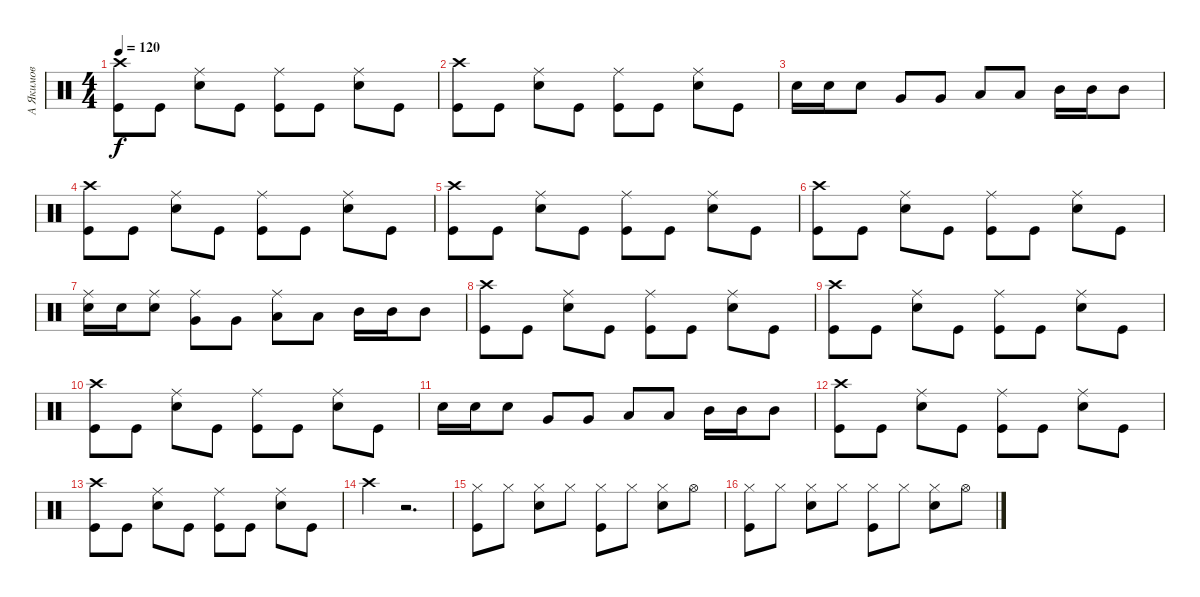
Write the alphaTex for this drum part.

\track ("А Якимов" "А Якимов") {instrument percussion}
\staff {score}
\articulation defaults
\ts (4 4)
\tempo 120
\clef neutral
\ks c
("Crash high (hit)" "Kick (hit)").8{dy f} "Kick (hit)".8 ("Ride (middle)" "Snare (hit) 2").8 "Kick (hit)".8 ("Ride (middle)" "Kick (hit)").8 "Kick (hit)".8 ("Ride (middle)" "Snare (hit) 2").8 "Kick (hit)".8 |
("Crash high (hit)" "Kick (hit)").8 "Kick (hit)".8 ("Ride (middle)" "Snare (hit) 2").8 "Kick (hit)".8 ("Ride (middle)" "Kick (hit)").8 "Kick (hit)".8 ("Ride (middle)" "Snare (hit) 2").8 "Kick (hit)".8 |
"Snare (hit) 2".16 "Snare (hit) 2".16 "Snare (hit) 2".8 "Very Low Tom (hit)".8 "Very Low Tom (hit)".8 "Low Tom (hit)".8 "Low Tom (hit)".8 "Mid Tom (hit)".16 "Mid Tom (hit)".16 "Mid Tom (hit)".8 |
("Crash high (hit)" "Kick (hit)").8 "Kick (hit)".8 ("Ride (middle)" "Snare (hit) 2").8 "Kick (hit)".8 ("Ride (middle)" "Kick (hit)").8 "Kick (hit)".8 ("Ride (middle)" "Snare (hit) 2").8 "Kick (hit)".8 |
("Crash high (hit)" "Kick (hit)").8 "Kick (hit)".8 ("Ride (middle)" "Snare (hit) 2").8 "Kick (hit)".8 ("Ride (middle)" "Kick (hit)").8 "Kick (hit)".8 ("Ride (middle)" "Snare (hit) 2").8 "Kick (hit)".8 |
("Crash high (hit)" "Kick (hit)").8 "Kick (hit)".8 ("Ride (middle)" "Snare (hit) 2").8 "Kick (hit)".8 ("Ride (middle)" "Kick (hit)").8 "Kick (hit)".8 ("Ride (middle)" "Snare (hit) 2").8 "Kick (hit)".8 |
("Snare (hit) 2" "Ride (middle)").16 "Snare (hit) 2".16 ("Snare (hit) 2" "Ride (middle)").8 ("Very Low Tom (hit)" "Ride (middle)").8 "Very Low Tom (hit)".8 ("Low Tom (hit)" "Ride (middle)").8 "Low Tom (hit)".8 "Mid Tom (hit)".16 "Mid Tom (hit)".16 "Mid Tom (hit)".8 |
("Crash high (hit)" "Kick (hit)").8 "Kick (hit)".8 ("Ride (middle)" "Snare (hit) 2").8 "Kick (hit)".8 ("Ride (middle)" "Kick (hit)").8 "Kick (hit)".8 ("Ride (middle)" "Snare (hit) 2").8 "Kick (hit)".8 |
("Crash high (hit)" "Kick (hit)").8 "Kick (hit)".8 ("Ride (middle)" "Snare (hit) 2").8 "Kick (hit)".8 ("Ride (middle)" "Kick (hit)").8 "Kick (hit)".8 ("Ride (middle)" "Snare (hit) 2").8 "Kick (hit)".8 |
("Crash high (hit)" "Kick (hit)").8 "Kick (hit)".8 ("Ride (middle)" "Snare (hit) 2").8 "Kick (hit)".8 ("Ride (middle)" "Kick (hit)").8 "Kick (hit)".8 ("Ride (middle)" "Snare (hit) 2").8 "Kick (hit)".8 |
"Snare (hit) 2".16 "Snare (hit) 2".16 "Snare (hit) 2".8 "Very Low Tom (hit)".8 "Very Low Tom (hit)".8 "Low Tom (hit)".8 "Low Tom (hit)".8 "Mid Tom (hit)".16 "Mid Tom (hit)".16 "Mid Tom (hit)".8 |
("Crash high (hit)" "Kick (hit)").8 "Kick (hit)".8 ("Ride (middle)" "Snare (hit) 2").8 "Kick (hit)".8 ("Ride (middle)" "Kick (hit)").8 "Kick (hit)".8 ("Ride (middle)" "Snare (hit) 2").8 "Kick (hit)".8 |
("Crash high (hit)" "Kick (hit)").8 "Kick (hit)".8 ("Ride (middle)" "Snare (hit) 2").8 "Kick (hit)".8 ("Ride (middle)" "Kick (hit)").8 "Kick (hit)".8 ("Ride (middle)" "Snare (hit) 2").8 "Kick (hit)".8 |
"Crash high (hit)".4 r.2{d} |
("Hi-Hat (closed)" "Kick (hit)").8 "Hi-Hat (closed)".8 ("Hi-Hat (closed)" "Snare (hit) 2").8 "Hi-Hat (closed)".8 ("Hi-Hat (closed)" "Kick (hit)").8 "Hi-Hat (closed)".8 ("Snare (hit) 2" "Hi-Hat (closed)").8 "Hi-Hat (open)".8 |
("Hi-Hat (closed)" "Kick (hit)").8 "Hi-Hat (closed)".8 ("Hi-Hat (closed)" "Snare (hit) 2").8 "Hi-Hat (closed)".8 ("Hi-Hat (closed)" "Kick (hit)").8 "Hi-Hat (closed)".8 ("Snare (hit) 2" "Hi-Hat (closed)").8 "Hi-Hat (open)".8
